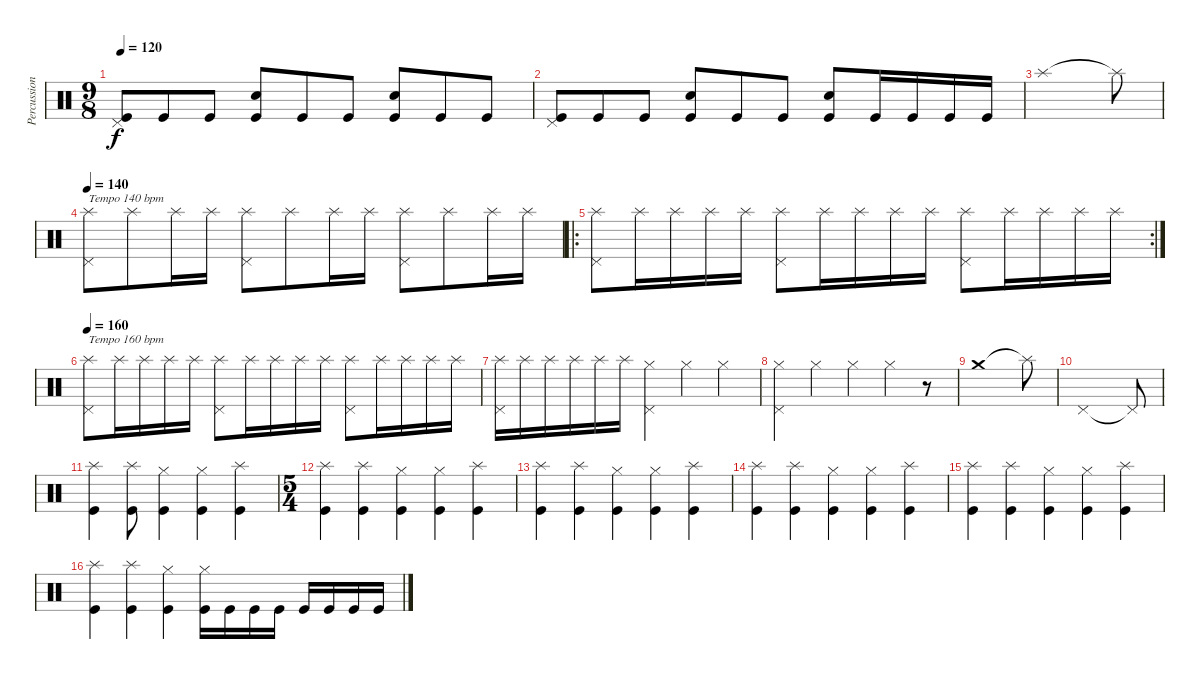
\track ("Percussion" "Percussion") {instrument percussion}
\staff {score}
\articulation defaults
\ts (9 8)
\tempo 120
\clef neutral
\ks c
("Pedal Hi-Hat (hit)" "Kick (hit)").8{dy f} "Kick (hit)".8 "Kick (hit)".8 ("Snare (hit) 2" "Kick (hit)").8 "Kick (hit)".8 "Kick (hit)".8 ("Snare (hit) 2" "Kick (hit)").8 "Kick (hit)".8 "Kick (hit)".8 |
("Pedal Hi-Hat (hit)" "Kick (hit)").8 "Kick (hit)".8 "Kick (hit)".8 ("Snare (hit) 2" "Kick (hit)").8 "Kick (hit)".8 "Kick (hit)".8 ("Snare (hit) 2" "Kick (hit)").8 "Kick (hit)".16 "Kick (hit)".16 "Kick (hit)".16 "Kick (hit)".16 |
"Splash (hit)".1 "Splash (hit)"{t}.8 |
\tempo 140
("Pedal Hi-Hat (hit)" "Splash (hit)").8{txt "Tempo 140 bpm"} "Splash (hit)".8 "Splash (hit)".16 "Splash (hit)".16 ("Pedal Hi-Hat (hit)" "Splash (hit)").8 "Splash (hit)".8 "Splash (hit)".16 "Splash (hit)".16 ("Pedal Hi-Hat (hit)" "Splash (hit)").8 "Splash (hit)".8 "Splash (hit)".16 "Splash (hit)".16 |
\ro
\rc 2
("Pedal Hi-Hat (hit)" "Splash (hit)").8 "Splash (hit)".16 "Splash (hit)".16 "Splash (hit)".16 "Splash (hit)".16 ("Pedal Hi-Hat (hit)" "Splash (hit)").8 "Splash (hit)".16 "Splash (hit)".16 "Splash (hit)".16 "Splash (hit)".16 ("Pedal Hi-Hat (hit)" "Splash (hit)").8 "Splash (hit)".16 "Splash (hit)".16 "Splash (hit)".16 "Splash (hit)".16 |
\tempo 160
("Pedal Hi-Hat (hit)" "Splash (hit)").8{txt "Tempo 160 bpm"} "Splash (hit)".16 "Splash (hit)".16 "Splash (hit)".16 "Splash (hit)".16 ("Pedal Hi-Hat (hit)" "Splash (hit)").8 "Splash (hit)".16 "Splash (hit)".16 "Splash (hit)".16 "Splash (hit)".16 ("Pedal Hi-Hat (hit)" "Splash (hit)").8 "Splash (hit)".16 "Splash (hit)".16 "Splash (hit)".16 "Splash (hit)".16 |
("Pedal Hi-Hat (hit)" "Splash (hit)").16 "Splash (hit)".16 "Splash (hit)".16 "Splash (hit)".16 "Splash (hit)".16 "Splash (hit)".16 ("Pedal Hi-Hat (hit)" "Hi-Hat (closed)").4 "Hi-Hat (closed)".4 "Hi-Hat (closed)".4 |
("Pedal Hi-Hat (hit)" "Hi-Hat (closed)").4 "Hi-Hat (closed)".4 "Hi-Hat (closed)".4 "Hi-Hat (closed)".4 r.8 |
"Crash medium (hit)".1 "Splash (hit)"{t}.8 |
"Pedal Hi-Hat (hit)".1 "Pedal Hi-Hat (hit)"{t}.8 |
("Splash (hit)" "Kick (hit)").4 ("Splash (hit)" "Kick (hit)").8 ("Hi-Hat (closed)" "Kick (hit)").4 ("Hi-Hat (closed)" "Kick (hit)").4 ("Splash (hit)" "Kick (hit)").4 |
\ts (5 4)
("Splash (hit)" "Kick (hit)").4 ("Splash (hit)" "Kick (hit)").4 ("Hi-Hat (closed)" "Kick (hit)").4 ("Hi-Hat (closed)" "Kick (hit)").4 ("Splash (hit)" "Kick (hit)").4 |
("Splash (hit)" "Kick (hit)").4 ("Splash (hit)" "Kick (hit)").4 ("Hi-Hat (closed)" "Kick (hit)").4 ("Hi-Hat (closed)" "Kick (hit)").4 ("Splash (hit)" "Kick (hit)").4 |
("Splash (hit)" "Kick (hit)").4 ("Splash (hit)" "Kick (hit)").4 ("Hi-Hat (closed)" "Kick (hit)").4 ("Hi-Hat (closed)" "Kick (hit)").4 ("Splash (hit)" "Kick (hit)").4 |
("Splash (hit)" "Kick (hit)").4 ("Splash (hit)" "Kick (hit)").4 ("Hi-Hat (closed)" "Kick (hit)").4 ("Hi-Hat (closed)" "Kick (hit)").4 ("Splash (hit)" "Kick (hit)").4 |
("Splash (hit)" "Kick (hit)").4 ("Splash (hit)" "Kick (hit)").4 ("Hi-Hat (closed)" "Kick (hit)").4 ("Hi-Hat (closed)" "Kick (hit)").16 "Kick (hit)".16 "Kick (hit)".16 "Kick (hit)".16 "Kick (hit)".16 "Kick (hit)".16 "Kick (hit)".16 "Kick (hit)".16
